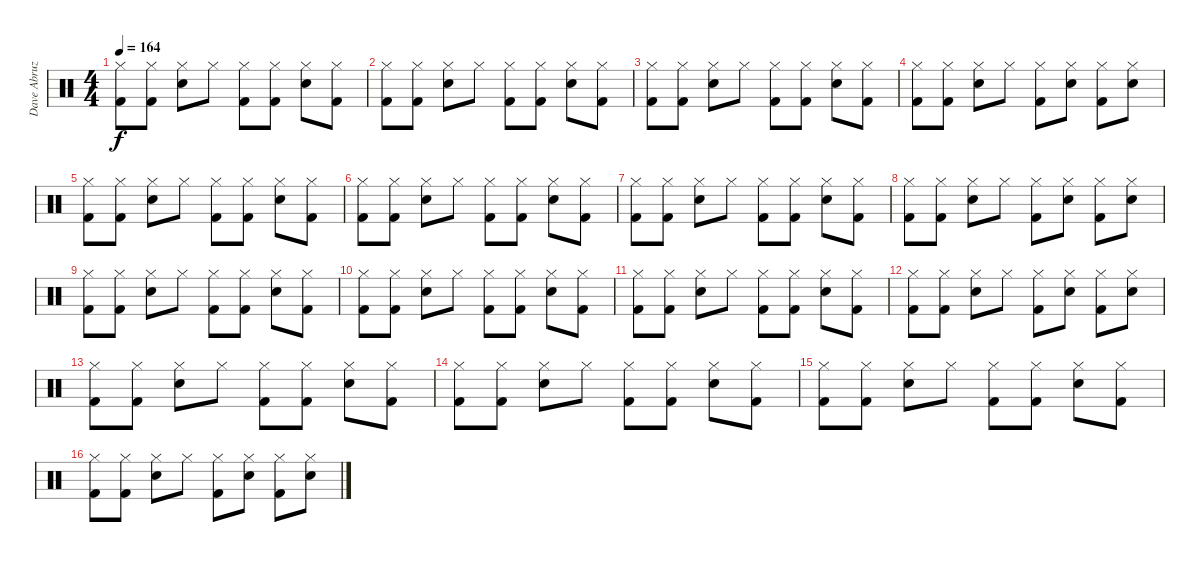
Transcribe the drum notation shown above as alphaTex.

\track ("Dave Abruzzese" "Dave Abruz") {instrument percussion}
\staff {score}
\articulation defaults
\ts (4 4)
\tempo 164
\clef neutral
\ks c
("Kick (hit) 2" "Hi-Hat (closed)").8{dy f} ("Kick (hit) 2" "Hi-Hat (closed)").8 ("Snare (hit) 2" "Hi-Hat (closed)").8 "Hi-Hat (closed)".8 ("Kick (hit) 2" "Hi-Hat (closed)").8 ("Kick (hit) 2" "Hi-Hat (closed)").8 ("Snare (hit) 2" "Hi-Hat (closed)").8 ("Kick (hit) 2" "Hi-Hat (closed)").8 |
("Kick (hit) 2" "Hi-Hat (closed)").8 ("Kick (hit) 2" "Hi-Hat (closed)").8 ("Snare (hit) 2" "Hi-Hat (closed)").8 "Hi-Hat (closed)".8 ("Kick (hit) 2" "Hi-Hat (closed)").8 ("Kick (hit) 2" "Hi-Hat (closed)").8 ("Snare (hit) 2" "Hi-Hat (closed)").8 ("Kick (hit) 2" "Hi-Hat (closed)").8 |
("Kick (hit) 2" "Hi-Hat (closed)").8 ("Kick (hit) 2" "Hi-Hat (closed)").8 ("Snare (hit) 2" "Hi-Hat (closed)").8 "Hi-Hat (closed)".8 ("Kick (hit) 2" "Hi-Hat (closed)").8 ("Kick (hit) 2" "Hi-Hat (closed)").8 ("Snare (hit) 2" "Hi-Hat (closed)").8 ("Kick (hit) 2" "Hi-Hat (closed)").8 |
("Kick (hit) 2" "Hi-Hat (closed)").8 ("Kick (hit) 2" "Hi-Hat (closed)").8 ("Snare (hit) 2" "Hi-Hat (closed)").8 "Hi-Hat (closed)".8 ("Kick (hit) 2" "Hi-Hat (closed)").8 ("Snare (hit) 2" "Hi-Hat (closed)").8 ("Kick (hit) 2" "Hi-Hat (closed)").8 ("Snare (hit) 2" "Hi-Hat (closed)").8 |
("Kick (hit) 2" "Hi-Hat (closed)").8 ("Kick (hit) 2" "Hi-Hat (closed)").8 ("Snare (hit) 2" "Hi-Hat (closed)").8 "Hi-Hat (closed)".8 ("Kick (hit) 2" "Hi-Hat (closed)").8 ("Kick (hit) 2" "Hi-Hat (closed)").8 ("Snare (hit) 2" "Hi-Hat (closed)").8 ("Kick (hit) 2" "Hi-Hat (closed)").8 |
("Kick (hit) 2" "Hi-Hat (closed)").8 ("Kick (hit) 2" "Hi-Hat (closed)").8 ("Snare (hit) 2" "Hi-Hat (closed)").8 "Hi-Hat (closed)".8 ("Kick (hit) 2" "Hi-Hat (closed)").8 ("Kick (hit) 2" "Hi-Hat (closed)").8 ("Snare (hit) 2" "Hi-Hat (closed)").8 ("Kick (hit) 2" "Hi-Hat (closed)").8 |
("Kick (hit) 2" "Hi-Hat (closed)").8 ("Kick (hit) 2" "Hi-Hat (closed)").8 ("Snare (hit) 2" "Hi-Hat (closed)").8 "Hi-Hat (closed)".8 ("Kick (hit) 2" "Hi-Hat (closed)").8 ("Kick (hit) 2" "Hi-Hat (closed)").8 ("Snare (hit) 2" "Hi-Hat (closed)").8 ("Kick (hit) 2" "Hi-Hat (closed)").8 |
("Kick (hit) 2" "Hi-Hat (closed)").8 ("Kick (hit) 2" "Hi-Hat (closed)").8 ("Snare (hit) 2" "Hi-Hat (closed)").8 "Hi-Hat (closed)".8 ("Kick (hit) 2" "Hi-Hat (closed)").8 ("Snare (hit) 2" "Hi-Hat (closed)").8 ("Kick (hit) 2" "Hi-Hat (closed)").8 ("Snare (hit) 2" "Hi-Hat (closed)").8 |
("Kick (hit) 2" "Hi-Hat (closed)").8 ("Kick (hit) 2" "Hi-Hat (closed)").8 ("Snare (hit) 2" "Hi-Hat (closed)").8 "Hi-Hat (closed)".8 ("Kick (hit) 2" "Hi-Hat (closed)").8 ("Kick (hit) 2" "Hi-Hat (closed)").8 ("Snare (hit) 2" "Hi-Hat (closed)").8 ("Kick (hit) 2" "Hi-Hat (closed)").8 |
("Kick (hit) 2" "Hi-Hat (closed)").8 ("Kick (hit) 2" "Hi-Hat (closed)").8 ("Snare (hit) 2" "Hi-Hat (closed)").8 "Hi-Hat (closed)".8 ("Kick (hit) 2" "Hi-Hat (closed)").8 ("Kick (hit) 2" "Hi-Hat (closed)").8 ("Snare (hit) 2" "Hi-Hat (closed)").8 ("Kick (hit) 2" "Hi-Hat (closed)").8 |
("Kick (hit) 2" "Hi-Hat (closed)").8 ("Kick (hit) 2" "Hi-Hat (closed)").8 ("Snare (hit) 2" "Hi-Hat (closed)").8 "Hi-Hat (closed)".8 ("Kick (hit) 2" "Hi-Hat (closed)").8 ("Kick (hit) 2" "Hi-Hat (closed)").8 ("Snare (hit) 2" "Hi-Hat (closed)").8 ("Kick (hit) 2" "Hi-Hat (closed)").8 |
("Kick (hit) 2" "Hi-Hat (closed)").8 ("Kick (hit) 2" "Hi-Hat (closed)").8 ("Snare (hit) 2" "Hi-Hat (closed)").8 "Hi-Hat (closed)".8 ("Kick (hit) 2" "Hi-Hat (closed)").8 ("Snare (hit) 2" "Hi-Hat (closed)").8 ("Kick (hit) 2" "Hi-Hat (closed)").8 ("Snare (hit) 2" "Hi-Hat (closed)").8 |
("Kick (hit) 2" "Hi-Hat (closed)").8 ("Kick (hit) 2" "Hi-Hat (closed)").8 ("Snare (hit) 2" "Hi-Hat (closed)").8 "Hi-Hat (closed)".8 ("Kick (hit) 2" "Hi-Hat (closed)").8 ("Kick (hit) 2" "Hi-Hat (closed)").8 ("Snare (hit) 2" "Hi-Hat (closed)").8 ("Kick (hit) 2" "Hi-Hat (closed)").8 |
("Kick (hit) 2" "Hi-Hat (closed)").8 ("Kick (hit) 2" "Hi-Hat (closed)").8 ("Snare (hit) 2" "Hi-Hat (closed)").8 "Hi-Hat (closed)".8 ("Kick (hit) 2" "Hi-Hat (closed)").8 ("Kick (hit) 2" "Hi-Hat (closed)").8 ("Snare (hit) 2" "Hi-Hat (closed)").8 ("Kick (hit) 2" "Hi-Hat (closed)").8 |
("Kick (hit) 2" "Hi-Hat (closed)").8 ("Kick (hit) 2" "Hi-Hat (closed)").8 ("Snare (hit) 2" "Hi-Hat (closed)").8 "Hi-Hat (closed)".8 ("Kick (hit) 2" "Hi-Hat (closed)").8 ("Kick (hit) 2" "Hi-Hat (closed)").8 ("Snare (hit) 2" "Hi-Hat (closed)").8 ("Kick (hit) 2" "Hi-Hat (closed)").8 |
("Kick (hit) 2" "Hi-Hat (closed)").8 ("Kick (hit) 2" "Hi-Hat (closed)").8 ("Snare (hit) 2" "Hi-Hat (closed)").8 "Hi-Hat (closed)".8 ("Kick (hit) 2" "Hi-Hat (closed)").8 ("Snare (hit) 2" "Hi-Hat (closed)").8 ("Kick (hit) 2" "Hi-Hat (closed)").8 ("Snare (hit) 2" "Hi-Hat (closed)").8
